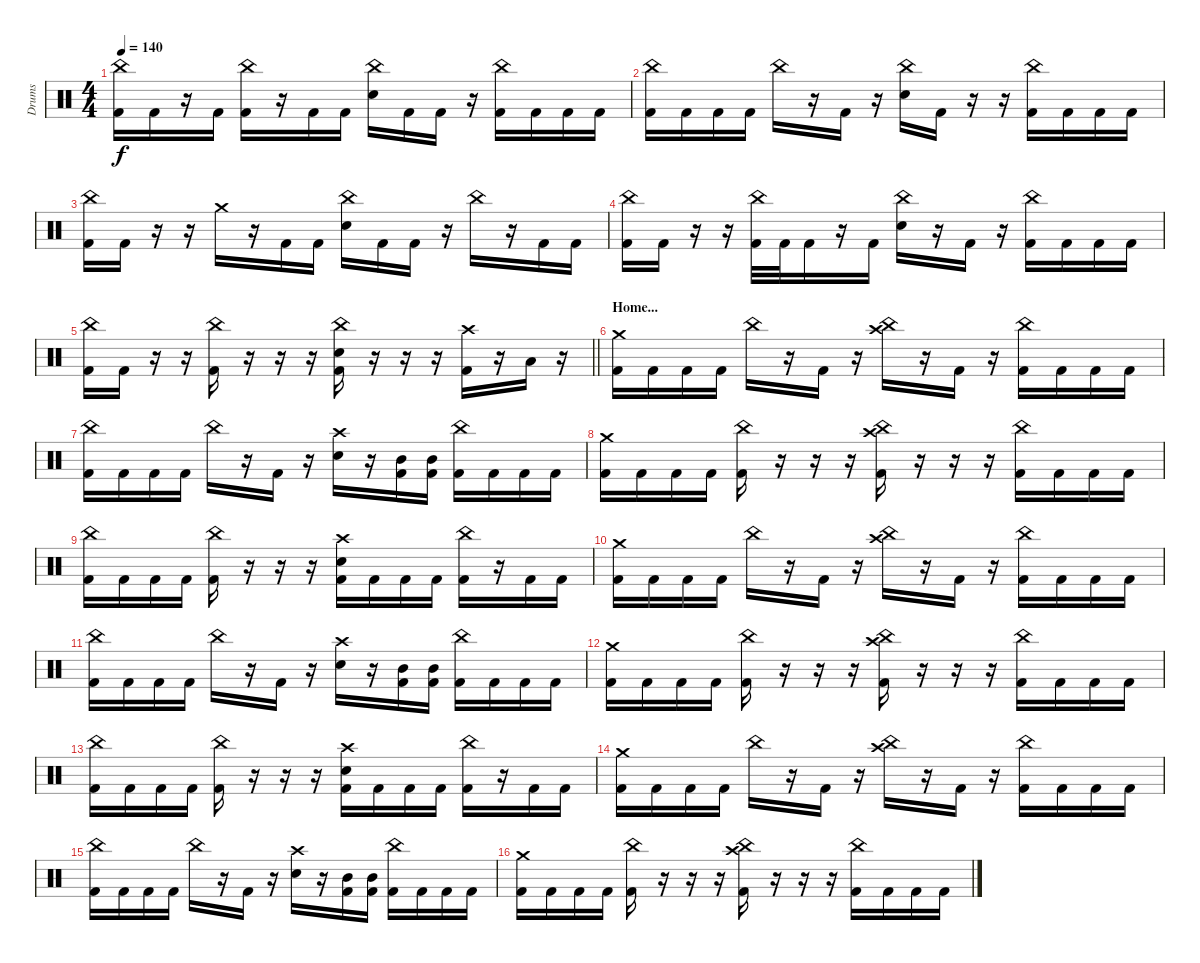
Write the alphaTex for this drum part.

\track ("Drums" "Drums") {instrument percussion}
\staff {score}
\articulation defaults
\ts (4 4)
\tempo 140
\clef neutral
\ks c
("China (hit)" "Kick (hit) 2").16{dy f} "Kick (hit) 2".16 r.16 "Kick (hit) 2".16 ("China (hit)" "Kick (hit) 2").16 r.16 "Kick (hit) 2".16 "Kick (hit) 2".16 ("China (hit)" "Snare (hit) 2").16 "Kick (hit) 2".16 "Kick (hit) 2".16 r.16 ("China (hit)" "Kick (hit) 2").16 "Kick (hit) 2".16 "Kick (hit) 2".16 "Kick (hit) 2".16 |
("China (hit)" "Kick (hit) 2").16 "Kick (hit) 2".16 "Kick (hit) 2".16 "Kick (hit) 2".16 "China (hit)".16 r.16 "Kick (hit) 2".16 r.16 ("China (hit)" "Snare (hit) 2").16 "Kick (hit) 2".16 r.16 r.16 ("China (hit)" "Kick (hit) 2").16 "Kick (hit) 2".16 "Kick (hit) 2".16 "Kick (hit) 2".16 |
("China (hit)" "Kick (hit) 2").16 "Kick (hit) 2".16 r.16 r.16 "Crash medium (hit)".16 r.16 "Kick (hit) 2".16 "Kick (hit) 2".16 ("China (hit)" "Snare (hit) 2").16 "Kick (hit) 2".16 "Kick (hit) 2".16 r.16 "China (hit)".16 r.16 "Kick (hit) 2".16 "Kick (hit) 2".16 |
("China (hit)" "Kick (hit) 2").16 "Kick (hit) 2".16 r.16 r.16 ("China (hit)" "Kick (hit) 2").32 "Kick (hit) 2".32 "Kick (hit) 2".16 r.16 "Kick (hit) 2".16 ("China (hit)" "Snare (hit) 2").16 r.16 "Kick (hit) 2".16 r.16 ("China (hit)" "Kick (hit) 2").16 "Kick (hit) 2".16 "Kick (hit) 2".16 "Kick (hit) 2".16 |
\barLineRight lightlight
("China (hit)" "Kick (hit) 2").16 "Kick (hit) 2".16 r.16 r.16 ("China (hit)" "Kick (hit) 2").16 r.16 r.16 r.16 ("China (hit)" "Snare (hit) 2" "Kick (hit) 2").16 r.16 r.16 r.16 ("Crash high (hit)" "Kick (hit) 2").16 r.16 "Low Tom (hit)".16 r.16 |
\section ("" "Home...")
("Crash medium (hit)" "Kick (hit) 2").16 "Kick (hit) 2".16 "Kick (hit) 2".16 "Kick (hit) 2".16 "China (hit)".16 r.16 "Kick (hit) 2".16 r.16 ("China (hit)" "Crash high (hit)").16 r.16 "Kick (hit) 2".16 r.16 ("China (hit)" "Kick (hit) 2").16 "Kick (hit) 2".16 "Kick (hit) 2".16 "Kick (hit) 2".16 |
("China (hit)" "Kick (hit) 2").16 "Kick (hit) 2".16 "Kick (hit) 2".16 "Kick (hit) 2".16 "China (hit)".16 r.16 "Kick (hit) 2".16 r.16 ("Crash high (hit)" "Snare (hit) 2").16 r.16 ("Mid Tom (hit)" "Kick (hit) 2").16 ("Mid Tom (hit)" "Kick (hit) 2").16 ("China (hit)" "Kick (hit) 2").16 "Kick (hit) 2".16 "Kick (hit) 2".16 "Kick (hit) 2".16 |
("Crash medium (hit)" "Kick (hit) 2").16 "Kick (hit) 2".16 "Kick (hit) 2".16 "Kick (hit) 2".16 ("China (hit)" "Kick (hit) 2").16 r.16 r.16 r.16 ("China (hit)" "Crash high (hit)" "Kick (hit) 2").16 r.16 r.16 r.16 ("China (hit)" "Kick (hit) 2").16 "Kick (hit) 2".16 "Kick (hit) 2".16 "Kick (hit) 2".16 |
("China (hit)" "Kick (hit) 2").16 "Kick (hit) 2".16 "Kick (hit) 2".16 "Kick (hit) 2".16 ("China (hit)" "Kick (hit) 2").16 r.16 r.16 r.16 ("Crash high (hit)" "Snare (hit) 2" "Kick (hit) 2").16 "Kick (hit) 2".16 "Kick (hit) 2".16 "Kick (hit) 2".16 ("China (hit)" "Kick (hit) 2").16 r.16 "Kick (hit) 2".16 "Kick (hit) 2".16 |
("Crash medium (hit)" "Kick (hit) 2").16 "Kick (hit) 2".16 "Kick (hit) 2".16 "Kick (hit) 2".16 "China (hit)".16 r.16 "Kick (hit) 2".16 r.16 ("China (hit)" "Crash high (hit)").16 r.16 "Kick (hit) 2".16 r.16 ("China (hit)" "Kick (hit) 2").16 "Kick (hit) 2".16 "Kick (hit) 2".16 "Kick (hit) 2".16 |
("China (hit)" "Kick (hit) 2").16 "Kick (hit) 2".16 "Kick (hit) 2".16 "Kick (hit) 2".16 "China (hit)".16 r.16 "Kick (hit) 2".16 r.16 ("Crash high (hit)" "Snare (hit) 2").16 r.16 ("Mid Tom (hit)" "Kick (hit) 2").16 ("Mid Tom (hit)" "Kick (hit) 2").16 ("China (hit)" "Kick (hit) 2").16 "Kick (hit) 2".16 "Kick (hit) 2".16 "Kick (hit) 2".16 |
("Crash medium (hit)" "Kick (hit) 2").16 "Kick (hit) 2".16 "Kick (hit) 2".16 "Kick (hit) 2".16 ("China (hit)" "Kick (hit) 2").16 r.16 r.16 r.16 ("China (hit)" "Crash high (hit)" "Kick (hit) 2").16 r.16 r.16 r.16 ("China (hit)" "Kick (hit) 2").16 "Kick (hit) 2".16 "Kick (hit) 2".16 "Kick (hit) 2".16 |
("China (hit)" "Kick (hit) 2").16 "Kick (hit) 2".16 "Kick (hit) 2".16 "Kick (hit) 2".16 ("China (hit)" "Kick (hit) 2").16 r.16 r.16 r.16 ("Crash high (hit)" "Snare (hit) 2" "Kick (hit) 2").16 "Kick (hit) 2".16 "Kick (hit) 2".16 "Kick (hit) 2".16 ("China (hit)" "Kick (hit) 2").16 r.16 "Kick (hit) 2".16 "Kick (hit) 2".16 |
("Crash medium (hit)" "Kick (hit) 2").16 "Kick (hit) 2".16 "Kick (hit) 2".16 "Kick (hit) 2".16 "China (hit)".16 r.16 "Kick (hit) 2".16 r.16 ("China (hit)" "Crash high (hit)").16 r.16 "Kick (hit) 2".16 r.16 ("China (hit)" "Kick (hit) 2").16 "Kick (hit) 2".16 "Kick (hit) 2".16 "Kick (hit) 2".16 |
("China (hit)" "Kick (hit) 2").16 "Kick (hit) 2".16 "Kick (hit) 2".16 "Kick (hit) 2".16 "China (hit)".16 r.16 "Kick (hit) 2".16 r.16 ("Crash high (hit)" "Snare (hit) 2").16 r.16 ("Mid Tom (hit)" "Kick (hit) 2").16 ("Mid Tom (hit)" "Kick (hit) 2").16 ("China (hit)" "Kick (hit) 2").16 "Kick (hit) 2".16 "Kick (hit) 2".16 "Kick (hit) 2".16 |
("Crash medium (hit)" "Kick (hit) 2").16 "Kick (hit) 2".16 "Kick (hit) 2".16 "Kick (hit) 2".16 ("China (hit)" "Kick (hit) 2").16 r.16 r.16 r.16 ("China (hit)" "Crash high (hit)" "Kick (hit) 2").16 r.16 r.16 r.16 ("China (hit)" "Kick (hit) 2").16 "Kick (hit) 2".16 "Kick (hit) 2".16 "Kick (hit) 2".16
